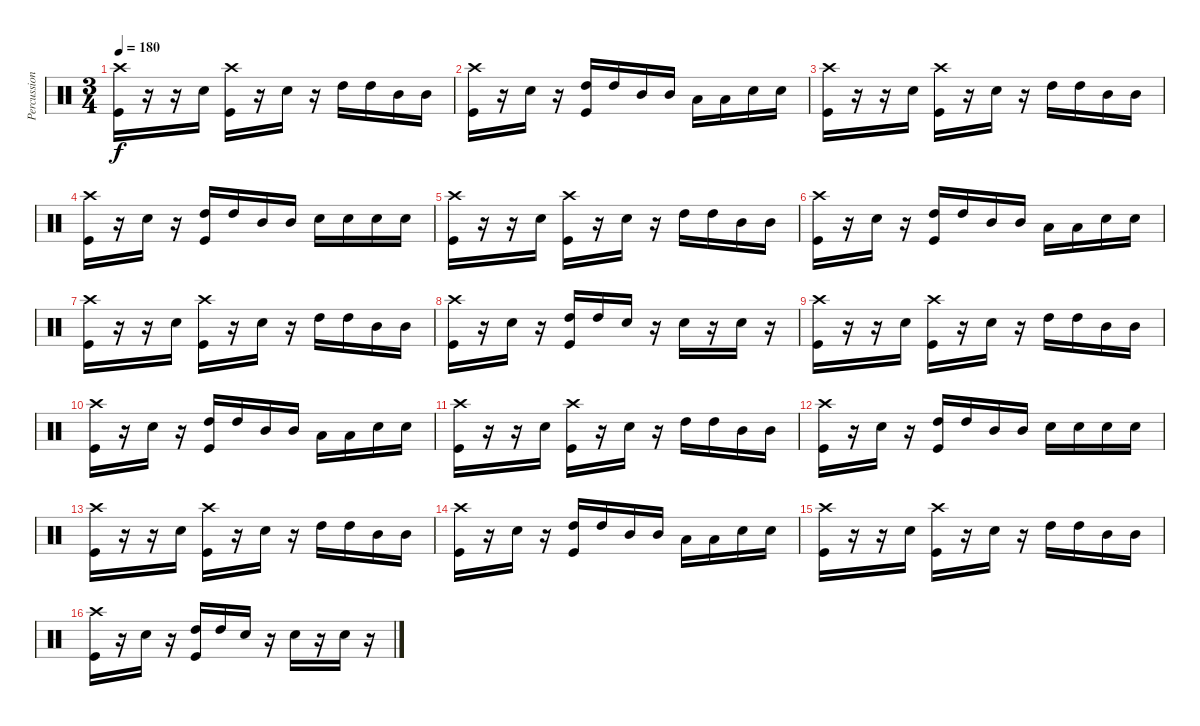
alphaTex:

\track ("Percussion" "Percussion") {instrument percussion}
\staff {score}
\articulation defaults
\ts (3 4)
\tempo 180
\clef neutral
\ks c
("Crash high (hit)" "Kick (hit)").16{dy f} r.16 r.16 "Electric Snare (hit)".16 ("Crash high (hit)" "Kick (hit)").16 r.16 "Electric Snare (hit)".16 r.16 "High Tom (hit)".16 "High Tom (hit)".16 "Mid Tom (hit)".16 "Mid Tom (hit)".16 |
("Crash high (hit)" "Kick (hit)").16 r.16 "Electric Snare (hit)".16 r.16 ("High Tom (hit)" "Kick (hit)").16 "High Tom (hit)".16 "Mid Tom (hit)".16 "Mid Tom (hit)".16 "Low Tom (hit)".16 "Low Tom (hit)".16 "Electric Snare (hit)".16 "Electric Snare (hit)".16 |
("Crash high (hit)" "Kick (hit)").16 r.16 r.16 "Electric Snare (hit)".16 ("Crash high (hit)" "Kick (hit)").16 r.16 "Electric Snare (hit)".16 r.16 "High Tom (hit)".16 "High Tom (hit)".16 "Mid Tom (hit)".16 "Mid Tom (hit)".16 |
("Crash high (hit)" "Kick (hit)").16 r.16 "Electric Snare (hit)".16 r.16 ("High Tom (hit)" "Kick (hit)").16 "High Tom (hit)".16 "Mid Tom (hit)".16 "Mid Tom (hit)".16 "Electric Snare (hit)".16 "Electric Snare (hit)".16 "Electric Snare (hit)".16 "Electric Snare (hit)".16 |
("Crash high (hit)" "Kick (hit)").16 r.16 r.16 "Electric Snare (hit)".16 ("Crash high (hit)" "Kick (hit)").16 r.16 "Electric Snare (hit)".16 r.16 "High Tom (hit)".16 "High Tom (hit)".16 "Mid Tom (hit)".16 "Mid Tom (hit)".16 |
("Crash high (hit)" "Kick (hit)").16 r.16 "Electric Snare (hit)".16 r.16 ("High Tom (hit)" "Kick (hit)").16 "High Tom (hit)".16 "Mid Tom (hit)".16 "Mid Tom (hit)".16 "Low Tom (hit)".16 "Low Tom (hit)".16 "Electric Snare (hit)".16 "Electric Snare (hit)".16 |
("Crash high (hit)" "Kick (hit)").16 r.16 r.16 "Electric Snare (hit)".16 ("Crash high (hit)" "Kick (hit)").16 r.16 "Electric Snare (hit)".16 r.16 "High Tom (hit)".16 "High Tom (hit)".16 "Mid Tom (hit)".16 "Mid Tom (hit)".16 |
("Crash high (hit)" "Kick (hit)").16 r.16 "Electric Snare (hit)".16 r.16 ("High Tom (hit)" "Kick (hit)").16 "High Tom (hit)".16 "Electric Snare (hit)".16 r.16 "Electric Snare (hit)".16 r.16 "Electric Snare (hit)".16 r.16 |
("Crash high (hit)" "Kick (hit)").16 r.16 r.16 "Electric Snare (hit)".16 ("Crash high (hit)" "Kick (hit)").16 r.16 "Electric Snare (hit)".16 r.16 "High Tom (hit)".16 "High Tom (hit)".16 "Mid Tom (hit)".16 "Mid Tom (hit)".16 |
("Crash high (hit)" "Kick (hit)").16 r.16 "Electric Snare (hit)".16 r.16 ("High Tom (hit)" "Kick (hit)").16 "High Tom (hit)".16 "Mid Tom (hit)".16 "Mid Tom (hit)".16 "Low Tom (hit)".16 "Low Tom (hit)".16 "Electric Snare (hit)".16 "Electric Snare (hit)".16 |
("Crash high (hit)" "Kick (hit)").16 r.16 r.16 "Electric Snare (hit)".16 ("Crash high (hit)" "Kick (hit)").16 r.16 "Electric Snare (hit)".16 r.16 "High Tom (hit)".16 "High Tom (hit)".16 "Mid Tom (hit)".16 "Mid Tom (hit)".16 |
("Crash high (hit)" "Kick (hit)").16 r.16 "Electric Snare (hit)".16 r.16 ("High Tom (hit)" "Kick (hit)").16 "High Tom (hit)".16 "Mid Tom (hit)".16 "Mid Tom (hit)".16 "Electric Snare (hit)".16 "Electric Snare (hit)".16 "Electric Snare (hit)".16 "Electric Snare (hit)".16 |
("Crash high (hit)" "Kick (hit)").16 r.16 r.16 "Electric Snare (hit)".16 ("Crash high (hit)" "Kick (hit)").16 r.16 "Electric Snare (hit)".16 r.16 "High Tom (hit)".16 "High Tom (hit)".16 "Mid Tom (hit)".16 "Mid Tom (hit)".16 |
("Crash high (hit)" "Kick (hit)").16 r.16 "Electric Snare (hit)".16 r.16 ("High Tom (hit)" "Kick (hit)").16 "High Tom (hit)".16 "Mid Tom (hit)".16 "Mid Tom (hit)".16 "Low Tom (hit)".16 "Low Tom (hit)".16 "Electric Snare (hit)".16 "Electric Snare (hit)".16 |
("Crash high (hit)" "Kick (hit)").16 r.16 r.16 "Electric Snare (hit)".16 ("Crash high (hit)" "Kick (hit)").16 r.16 "Electric Snare (hit)".16 r.16 "High Tom (hit)".16 "High Tom (hit)".16 "Mid Tom (hit)".16 "Mid Tom (hit)".16 |
("Crash high (hit)" "Kick (hit)").16 r.16 "Electric Snare (hit)".16 r.16 ("High Tom (hit)" "Kick (hit)").16 "High Tom (hit)".16 "Electric Snare (hit)".16 r.16 "Electric Snare (hit)".16 r.16 "Electric Snare (hit)".16 r.16
